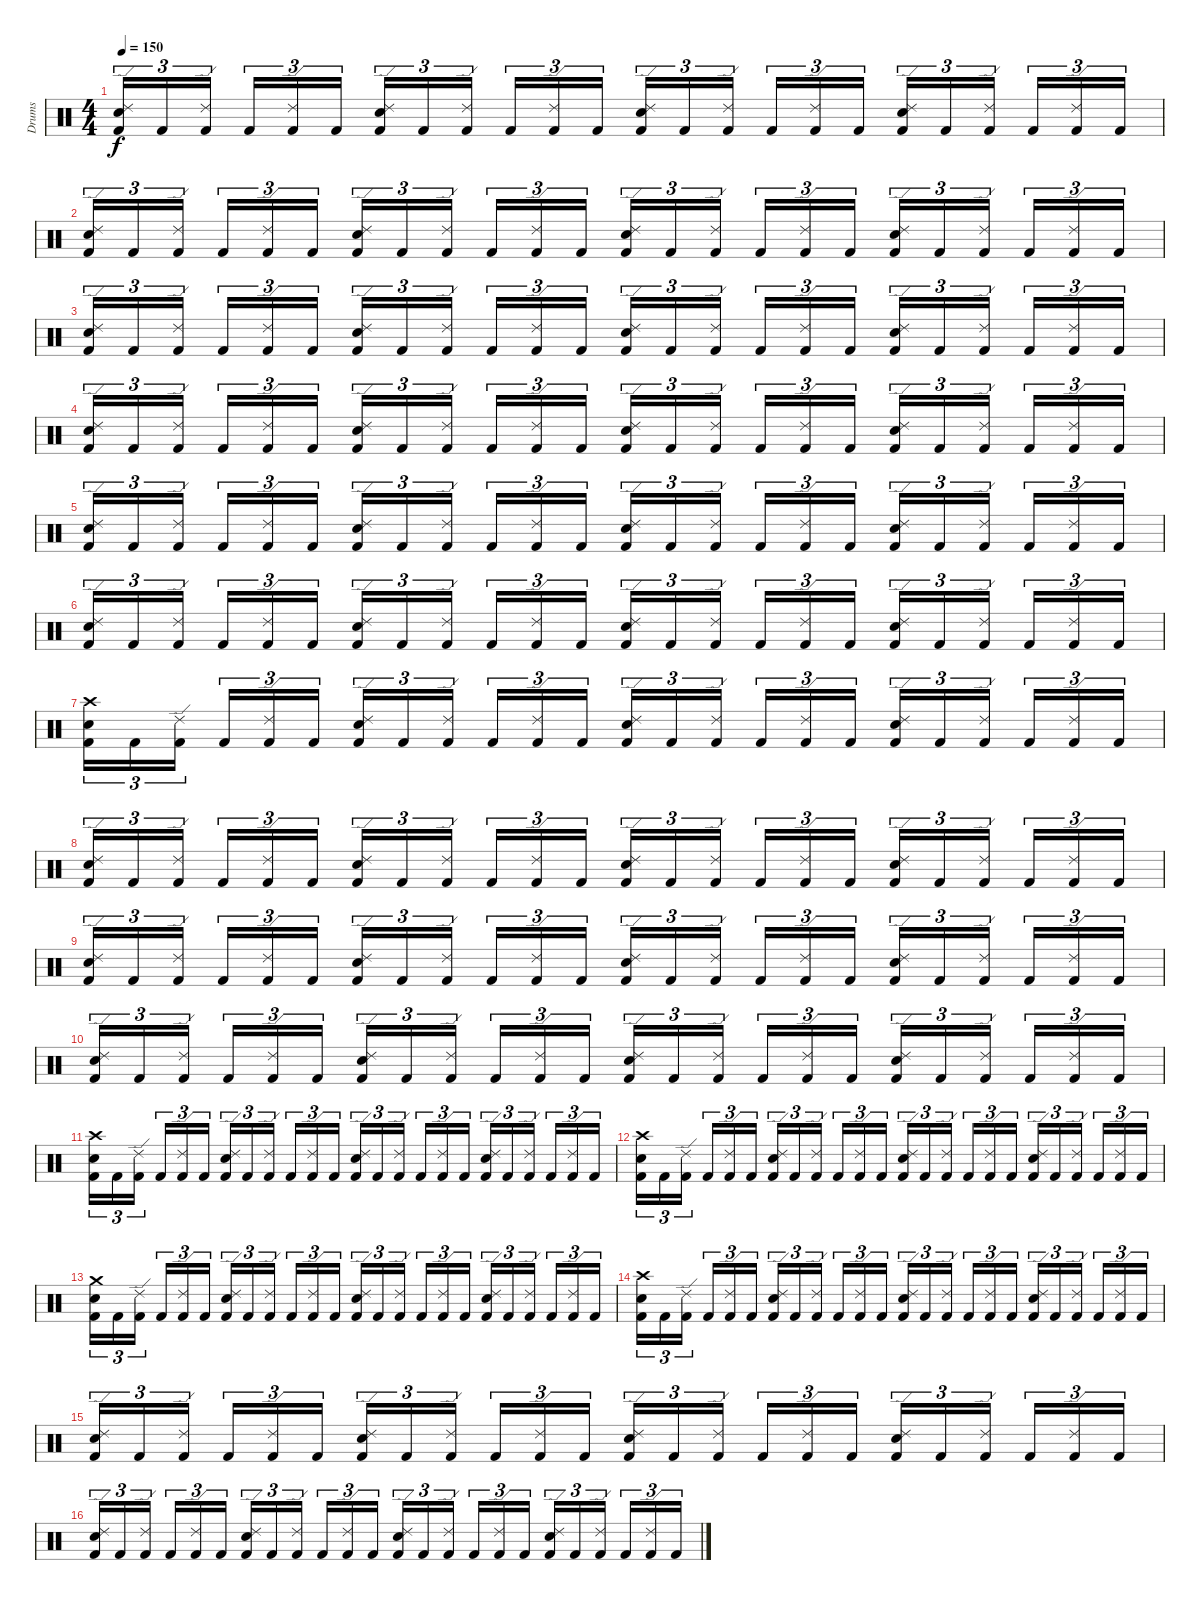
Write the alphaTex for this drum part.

\track ("Drums" "Drums") {instrument percussion}
\staff {score}
\articulation defaults
\ts (4 4)
\tempo 150
\clef neutral
\ks c
("Ride (edge) 2" "Electric Snare (hit)" "Kick (hit) 2").16{tu (3 2) dy f} "Kick (hit) 2".16{tu (3 2)} ("Ride (edge) 2" "Kick (hit) 2").16{tu (3 2)} "Kick (hit) 2".16{tu (3 2)} ("Ride (edge) 2" "Kick (hit) 2").16{tu (3 2)} "Kick (hit) 2".16{tu (3 2)} ("Ride (edge) 2" "Electric Snare (hit)" "Kick (hit) 2").16{tu (3 2)} "Kick (hit) 2".16{tu (3 2)} ("Ride (edge) 2" "Kick (hit) 2").16{tu (3 2)} "Kick (hit) 2".16{tu (3 2)} ("Ride (edge) 2" "Kick (hit) 2").16{tu (3 2)} "Kick (hit) 2".16{tu (3 2)} ("Ride (edge) 2" "Electric Snare (hit)" "Kick (hit) 2").16{tu (3 2)} "Kick (hit) 2".16{tu (3 2)} ("Ride (edge) 2" "Kick (hit) 2").16{tu (3 2)} "Kick (hit) 2".16{tu (3 2)} ("Ride (edge) 2" "Kick (hit) 2").16{tu (3 2)} "Kick (hit) 2".16{tu (3 2)} ("Ride (edge) 2" "Electric Snare (hit)" "Kick (hit) 2").16{tu (3 2)} "Kick (hit) 2".16{tu (3 2)} ("Ride (edge) 2" "Kick (hit) 2").16{tu (3 2)} "Kick (hit) 2".16{tu (3 2)} ("Ride (edge) 2" "Kick (hit) 2").16{tu (3 2)} "Kick (hit) 2".16{tu (3 2)} |
("Ride (edge) 2" "Electric Snare (hit)" "Kick (hit) 2").16{tu (3 2)} "Kick (hit) 2".16{tu (3 2)} ("Ride (edge) 2" "Kick (hit) 2").16{tu (3 2)} "Kick (hit) 2".16{tu (3 2)} ("Ride (edge) 2" "Kick (hit) 2").16{tu (3 2)} "Kick (hit) 2".16{tu (3 2)} ("Ride (edge) 2" "Electric Snare (hit)" "Kick (hit) 2").16{tu (3 2)} "Kick (hit) 2".16{tu (3 2)} ("Ride (edge) 2" "Kick (hit) 2").16{tu (3 2)} "Kick (hit) 2".16{tu (3 2)} ("Ride (edge) 2" "Kick (hit) 2").16{tu (3 2)} "Kick (hit) 2".16{tu (3 2)} ("Ride (edge) 2" "Electric Snare (hit)" "Kick (hit) 2").16{tu (3 2)} "Kick (hit) 2".16{tu (3 2)} ("Ride (edge) 2" "Kick (hit) 2").16{tu (3 2)} "Kick (hit) 2".16{tu (3 2)} ("Ride (edge) 2" "Kick (hit) 2").16{tu (3 2)} "Kick (hit) 2".16{tu (3 2)} ("Ride (edge) 2" "Electric Snare (hit)" "Kick (hit) 2").16{tu (3 2)} "Kick (hit) 2".16{tu (3 2)} ("Ride (edge) 2" "Kick (hit) 2").16{tu (3 2)} "Kick (hit) 2".16{tu (3 2)} ("Ride (edge) 2" "Kick (hit) 2").16{tu (3 2)} "Kick (hit) 2".16{tu (3 2)} |
("Ride (edge) 2" "Electric Snare (hit)" "Kick (hit) 2").16{tu (3 2)} "Kick (hit) 2".16{tu (3 2)} ("Ride (edge) 2" "Kick (hit) 2").16{tu (3 2)} "Kick (hit) 2".16{tu (3 2)} ("Ride (edge) 2" "Kick (hit) 2").16{tu (3 2)} "Kick (hit) 2".16{tu (3 2)} ("Ride (edge) 2" "Electric Snare (hit)" "Kick (hit) 2").16{tu (3 2)} "Kick (hit) 2".16{tu (3 2)} ("Ride (edge) 2" "Kick (hit) 2").16{tu (3 2)} "Kick (hit) 2".16{tu (3 2)} ("Ride (edge) 2" "Kick (hit) 2").16{tu (3 2)} "Kick (hit) 2".16{tu (3 2)} ("Ride (edge) 2" "Electric Snare (hit)" "Kick (hit) 2").16{tu (3 2)} "Kick (hit) 2".16{tu (3 2)} ("Ride (edge) 2" "Kick (hit) 2").16{tu (3 2)} "Kick (hit) 2".16{tu (3 2)} ("Ride (edge) 2" "Kick (hit) 2").16{tu (3 2)} "Kick (hit) 2".16{tu (3 2)} ("Ride (edge) 2" "Electric Snare (hit)" "Kick (hit) 2").16{tu (3 2)} "Kick (hit) 2".16{tu (3 2)} ("Ride (edge) 2" "Kick (hit) 2").16{tu (3 2)} "Kick (hit) 2".16{tu (3 2)} ("Ride (edge) 2" "Kick (hit) 2").16{tu (3 2)} "Kick (hit) 2".16{tu (3 2)} |
("Ride (edge) 2" "Electric Snare (hit)" "Kick (hit) 2").16{tu (3 2)} "Kick (hit) 2".16{tu (3 2)} ("Ride (edge) 2" "Kick (hit) 2").16{tu (3 2)} "Kick (hit) 2".16{tu (3 2)} ("Ride (edge) 2" "Kick (hit) 2").16{tu (3 2)} "Kick (hit) 2".16{tu (3 2)} ("Ride (edge) 2" "Electric Snare (hit)" "Kick (hit) 2").16{tu (3 2)} "Kick (hit) 2".16{tu (3 2)} ("Ride (edge) 2" "Kick (hit) 2").16{tu (3 2)} "Kick (hit) 2".16{tu (3 2)} ("Ride (edge) 2" "Kick (hit) 2").16{tu (3 2)} "Kick (hit) 2".16{tu (3 2)} ("Ride (edge) 2" "Electric Snare (hit)" "Kick (hit) 2").16{tu (3 2)} "Kick (hit) 2".16{tu (3 2)} ("Ride (edge) 2" "Kick (hit) 2").16{tu (3 2)} "Kick (hit) 2".16{tu (3 2)} ("Ride (edge) 2" "Kick (hit) 2").16{tu (3 2)} "Kick (hit) 2".16{tu (3 2)} ("Ride (edge) 2" "Electric Snare (hit)" "Kick (hit) 2").16{tu (3 2)} "Kick (hit) 2".16{tu (3 2)} ("Ride (edge) 2" "Kick (hit) 2").16{tu (3 2)} "Kick (hit) 2".16{tu (3 2)} ("Ride (edge) 2" "Kick (hit) 2").16{tu (3 2)} "Kick (hit) 2".16{tu (3 2)} |
("Ride (edge) 2" "Electric Snare (hit)" "Kick (hit) 2").16{tu (3 2)} "Kick (hit) 2".16{tu (3 2)} ("Ride (edge) 2" "Kick (hit) 2").16{tu (3 2)} "Kick (hit) 2".16{tu (3 2)} ("Ride (edge) 2" "Kick (hit) 2").16{tu (3 2)} "Kick (hit) 2".16{tu (3 2)} ("Ride (edge) 2" "Electric Snare (hit)" "Kick (hit) 2").16{tu (3 2)} "Kick (hit) 2".16{tu (3 2)} ("Ride (edge) 2" "Kick (hit) 2").16{tu (3 2)} "Kick (hit) 2".16{tu (3 2)} ("Ride (edge) 2" "Kick (hit) 2").16{tu (3 2)} "Kick (hit) 2".16{tu (3 2)} ("Ride (edge) 2" "Electric Snare (hit)" "Kick (hit) 2").16{tu (3 2)} "Kick (hit) 2".16{tu (3 2)} ("Ride (edge) 2" "Kick (hit) 2").16{tu (3 2)} "Kick (hit) 2".16{tu (3 2)} ("Ride (edge) 2" "Kick (hit) 2").16{tu (3 2)} "Kick (hit) 2".16{tu (3 2)} ("Ride (edge) 2" "Electric Snare (hit)" "Kick (hit) 2").16{tu (3 2)} "Kick (hit) 2".16{tu (3 2)} ("Ride (edge) 2" "Kick (hit) 2").16{tu (3 2)} "Kick (hit) 2".16{tu (3 2)} ("Ride (edge) 2" "Kick (hit) 2").16{tu (3 2)} "Kick (hit) 2".16{tu (3 2)} |
("Ride (edge) 2" "Electric Snare (hit)" "Kick (hit) 2").16{tu (3 2)} "Kick (hit) 2".16{tu (3 2)} ("Ride (edge) 2" "Kick (hit) 2").16{tu (3 2)} "Kick (hit) 2".16{tu (3 2)} ("Ride (edge) 2" "Kick (hit) 2").16{tu (3 2)} "Kick (hit) 2".16{tu (3 2)} ("Ride (edge) 2" "Electric Snare (hit)" "Kick (hit) 2").16{tu (3 2)} "Kick (hit) 2".16{tu (3 2)} ("Ride (edge) 2" "Kick (hit) 2").16{tu (3 2)} "Kick (hit) 2".16{tu (3 2)} ("Ride (edge) 2" "Kick (hit) 2").16{tu (3 2)} "Kick (hit) 2".16{tu (3 2)} ("Ride (edge) 2" "Electric Snare (hit)" "Kick (hit) 2").16{tu (3 2)} "Kick (hit) 2".16{tu (3 2)} ("Ride (edge) 2" "Kick (hit) 2").16{tu (3 2)} "Kick (hit) 2".16{tu (3 2)} ("Ride (edge) 2" "Kick (hit) 2").16{tu (3 2)} "Kick (hit) 2".16{tu (3 2)} ("Ride (edge) 2" "Electric Snare (hit)" "Kick (hit) 2").16{tu (3 2)} "Kick (hit) 2".16{tu (3 2)} ("Ride (edge) 2" "Kick (hit) 2").16{tu (3 2)} "Kick (hit) 2".16{tu (3 2)} ("Ride (edge) 2" "Kick (hit) 2").16{tu (3 2)} "Kick (hit) 2".16{tu (3 2)} |
("Crash high (hit)" "Electric Snare (hit)" "Kick (hit) 2").16{tu (3 2)} "Kick (hit) 2".16{tu (3 2)} ("Ride (edge) 2" "Kick (hit) 2").16{tu (3 2)} "Kick (hit) 2".16{tu (3 2)} ("Ride (edge) 2" "Kick (hit) 2").16{tu (3 2)} "Kick (hit) 2".16{tu (3 2)} ("Ride (edge) 2" "Electric Snare (hit)" "Kick (hit) 2").16{tu (3 2)} "Kick (hit) 2".16{tu (3 2)} ("Ride (edge) 2" "Kick (hit) 2").16{tu (3 2)} "Kick (hit) 2".16{tu (3 2)} ("Ride (edge) 2" "Kick (hit) 2").16{tu (3 2)} "Kick (hit) 2".16{tu (3 2)} ("Ride (edge) 2" "Electric Snare (hit)" "Kick (hit) 2").16{tu (3 2)} "Kick (hit) 2".16{tu (3 2)} ("Ride (edge) 2" "Kick (hit) 2").16{tu (3 2)} "Kick (hit) 2".16{tu (3 2)} ("Ride (edge) 2" "Kick (hit) 2").16{tu (3 2)} "Kick (hit) 2".16{tu (3 2)} ("Ride (edge) 2" "Electric Snare (hit)" "Kick (hit) 2").16{tu (3 2)} "Kick (hit) 2".16{tu (3 2)} ("Ride (edge) 2" "Kick (hit) 2").16{tu (3 2)} "Kick (hit) 2".16{tu (3 2)} ("Ride (edge) 2" "Kick (hit) 2").16{tu (3 2)} "Kick (hit) 2".16{tu (3 2)} |
("Ride (edge) 2" "Electric Snare (hit)" "Kick (hit) 2").16{tu (3 2)} "Kick (hit) 2".16{tu (3 2)} ("Ride (edge) 2" "Kick (hit) 2").16{tu (3 2)} "Kick (hit) 2".16{tu (3 2)} ("Ride (edge) 2" "Kick (hit) 2").16{tu (3 2)} "Kick (hit) 2".16{tu (3 2)} ("Ride (edge) 2" "Electric Snare (hit)" "Kick (hit) 2").16{tu (3 2)} "Kick (hit) 2".16{tu (3 2)} ("Ride (edge) 2" "Kick (hit) 2").16{tu (3 2)} "Kick (hit) 2".16{tu (3 2)} ("Ride (edge) 2" "Kick (hit) 2").16{tu (3 2)} "Kick (hit) 2".16{tu (3 2)} ("Ride (edge) 2" "Electric Snare (hit)" "Kick (hit) 2").16{tu (3 2)} "Kick (hit) 2".16{tu (3 2)} ("Ride (edge) 2" "Kick (hit) 2").16{tu (3 2)} "Kick (hit) 2".16{tu (3 2)} ("Ride (edge) 2" "Kick (hit) 2").16{tu (3 2)} "Kick (hit) 2".16{tu (3 2)} ("Ride (edge) 2" "Electric Snare (hit)" "Kick (hit) 2").16{tu (3 2)} "Kick (hit) 2".16{tu (3 2)} ("Ride (edge) 2" "Kick (hit) 2").16{tu (3 2)} "Kick (hit) 2".16{tu (3 2)} ("Ride (edge) 2" "Kick (hit) 2").16{tu (3 2)} "Kick (hit) 2".16{tu (3 2)} |
("Ride (edge) 2" "Electric Snare (hit)" "Kick (hit) 2").16{tu (3 2)} "Kick (hit) 2".16{tu (3 2)} ("Ride (edge) 2" "Kick (hit) 2").16{tu (3 2)} "Kick (hit) 2".16{tu (3 2)} ("Ride (edge) 2" "Kick (hit) 2").16{tu (3 2)} "Kick (hit) 2".16{tu (3 2)} ("Ride (edge) 2" "Electric Snare (hit)" "Kick (hit) 2").16{tu (3 2)} "Kick (hit) 2".16{tu (3 2)} ("Ride (edge) 2" "Kick (hit) 2").16{tu (3 2)} "Kick (hit) 2".16{tu (3 2)} ("Ride (edge) 2" "Kick (hit) 2").16{tu (3 2)} "Kick (hit) 2".16{tu (3 2)} ("Ride (edge) 2" "Electric Snare (hit)" "Kick (hit) 2").16{tu (3 2)} "Kick (hit) 2".16{tu (3 2)} ("Ride (edge) 2" "Kick (hit) 2").16{tu (3 2)} "Kick (hit) 2".16{tu (3 2)} ("Ride (edge) 2" "Kick (hit) 2").16{tu (3 2)} "Kick (hit) 2".16{tu (3 2)} ("Ride (edge) 2" "Electric Snare (hit)" "Kick (hit) 2").16{tu (3 2)} "Kick (hit) 2".16{tu (3 2)} ("Ride (edge) 2" "Kick (hit) 2").16{tu (3 2)} "Kick (hit) 2".16{tu (3 2)} ("Ride (edge) 2" "Kick (hit) 2").16{tu (3 2)} "Kick (hit) 2".16{tu (3 2)} |
("Ride (edge) 2" "Electric Snare (hit)" "Kick (hit) 2").16{tu (3 2)} "Kick (hit) 2".16{tu (3 2)} ("Ride (edge) 2" "Kick (hit) 2").16{tu (3 2)} "Kick (hit) 2".16{tu (3 2)} ("Ride (edge) 2" "Kick (hit) 2").16{tu (3 2)} "Kick (hit) 2".16{tu (3 2)} ("Ride (edge) 2" "Electric Snare (hit)" "Kick (hit) 2").16{tu (3 2)} "Kick (hit) 2".16{tu (3 2)} ("Ride (edge) 2" "Kick (hit) 2").16{tu (3 2)} "Kick (hit) 2".16{tu (3 2)} ("Ride (edge) 2" "Kick (hit) 2").16{tu (3 2)} "Kick (hit) 2".16{tu (3 2)} ("Ride (edge) 2" "Electric Snare (hit)" "Kick (hit) 2").16{tu (3 2)} "Kick (hit) 2".16{tu (3 2)} ("Ride (edge) 2" "Kick (hit) 2").16{tu (3 2)} "Kick (hit) 2".16{tu (3 2)} ("Ride (edge) 2" "Kick (hit) 2").16{tu (3 2)} "Kick (hit) 2".16{tu (3 2)} ("Ride (edge) 2" "Electric Snare (hit)" "Kick (hit) 2").16{tu (3 2)} "Kick (hit) 2".16{tu (3 2)} ("Ride (edge) 2" "Kick (hit) 2").16{tu (3 2)} "Kick (hit) 2".16{tu (3 2)} ("Ride (edge) 2" "Kick (hit) 2").16{tu (3 2)} "Kick (hit) 2".16{tu (3 2)} |
("Crash high (hit)" "Electric Snare (hit)" "Kick (hit) 2").16{tu (3 2)} "Kick (hit) 2".16{tu (3 2)} ("Ride (edge) 2" "Kick (hit) 2").16{tu (3 2)} "Kick (hit) 2".16{tu (3 2)} ("Ride (edge) 2" "Kick (hit) 2").16{tu (3 2)} "Kick (hit) 2".16{tu (3 2)} ("Ride (edge) 2" "Electric Snare (hit)" "Kick (hit) 2").16{tu (3 2)} "Kick (hit) 2".16{tu (3 2)} ("Ride (edge) 2" "Kick (hit) 2").16{tu (3 2)} "Kick (hit) 2".16{tu (3 2)} ("Ride (edge) 2" "Kick (hit) 2").16{tu (3 2)} "Kick (hit) 2".16{tu (3 2)} ("Ride (edge) 2" "Electric Snare (hit)" "Kick (hit) 2").16{tu (3 2)} "Kick (hit) 2".16{tu (3 2)} ("Ride (edge) 2" "Kick (hit) 2").16{tu (3 2)} "Kick (hit) 2".16{tu (3 2)} ("Ride (edge) 2" "Kick (hit) 2").16{tu (3 2)} "Kick (hit) 2".16{tu (3 2)} ("Ride (edge) 2" "Electric Snare (hit)" "Kick (hit) 2").16{tu (3 2)} "Kick (hit) 2".16{tu (3 2)} ("Ride (edge) 2" "Kick (hit) 2").16{tu (3 2)} "Kick (hit) 2".16{tu (3 2)} ("Ride (edge) 2" "Kick (hit) 2").16{tu (3 2)} "Kick (hit) 2".16{tu (3 2)} |
("Crash high (hit)" "Electric Snare (hit)" "Kick (hit) 2").16{tu (3 2)} "Kick (hit) 2".16{tu (3 2)} ("Ride (edge) 2" "Kick (hit) 2").16{tu (3 2)} "Kick (hit) 2".16{tu (3 2)} ("Ride (edge) 2" "Kick (hit) 2").16{tu (3 2)} "Kick (hit) 2".16{tu (3 2)} ("Ride (edge) 2" "Electric Snare (hit)" "Kick (hit) 2").16{tu (3 2)} "Kick (hit) 2".16{tu (3 2)} ("Ride (edge) 2" "Kick (hit) 2").16{tu (3 2)} "Kick (hit) 2".16{tu (3 2)} ("Ride (edge) 2" "Kick (hit) 2").16{tu (3 2)} "Kick (hit) 2".16{tu (3 2)} ("Ride (edge) 2" "Electric Snare (hit)" "Kick (hit) 2").16{tu (3 2)} "Kick (hit) 2".16{tu (3 2)} ("Ride (edge) 2" "Kick (hit) 2").16{tu (3 2)} "Kick (hit) 2".16{tu (3 2)} ("Ride (edge) 2" "Kick (hit) 2").16{tu (3 2)} "Kick (hit) 2".16{tu (3 2)} ("Ride (edge) 2" "Electric Snare (hit)" "Kick (hit) 2").16{tu (3 2)} "Kick (hit) 2".16{tu (3 2)} ("Ride (edge) 2" "Kick (hit) 2").16{tu (3 2)} "Kick (hit) 2".16{tu (3 2)} ("Ride (edge) 2" "Kick (hit) 2").16{tu (3 2)} "Kick (hit) 2".16{tu (3 2)} |
("Crash medium (hit)" "Electric Snare (hit)" "Kick (hit) 2").16{tu (3 2)} "Kick (hit) 2".16{tu (3 2)} ("Ride (edge) 2" "Kick (hit) 2").16{tu (3 2)} "Kick (hit) 2".16{tu (3 2)} ("Ride (edge) 2" "Kick (hit) 2").16{tu (3 2)} "Kick (hit) 2".16{tu (3 2)} ("Ride (edge) 2" "Electric Snare (hit)" "Kick (hit) 2").16{tu (3 2)} "Kick (hit) 2".16{tu (3 2)} ("Ride (edge) 2" "Kick (hit) 2").16{tu (3 2)} "Kick (hit) 2".16{tu (3 2)} ("Ride (edge) 2" "Kick (hit) 2").16{tu (3 2)} "Kick (hit) 2".16{tu (3 2)} ("Ride (edge) 2" "Electric Snare (hit)" "Kick (hit) 2").16{tu (3 2)} "Kick (hit) 2".16{tu (3 2)} ("Ride (edge) 2" "Kick (hit) 2").16{tu (3 2)} "Kick (hit) 2".16{tu (3 2)} ("Ride (edge) 2" "Kick (hit) 2").16{tu (3 2)} "Kick (hit) 2".16{tu (3 2)} ("Ride (edge) 2" "Electric Snare (hit)" "Kick (hit) 2").16{tu (3 2)} "Kick (hit) 2".16{tu (3 2)} ("Ride (edge) 2" "Kick (hit) 2").16{tu (3 2)} "Kick (hit) 2".16{tu (3 2)} ("Ride (edge) 2" "Kick (hit) 2").16{tu (3 2)} "Kick (hit) 2".16{tu (3 2)} |
("Crash high (hit)" "Electric Snare (hit)" "Kick (hit) 2").16{tu (3 2)} "Kick (hit) 2".16{tu (3 2)} ("Ride (edge) 2" "Kick (hit) 2").16{tu (3 2)} "Kick (hit) 2".16{tu (3 2)} ("Ride (edge) 2" "Kick (hit) 2").16{tu (3 2)} "Kick (hit) 2".16{tu (3 2)} ("Ride (edge) 2" "Electric Snare (hit)" "Kick (hit) 2").16{tu (3 2)} "Kick (hit) 2".16{tu (3 2)} ("Ride (edge) 2" "Kick (hit) 2").16{tu (3 2)} "Kick (hit) 2".16{tu (3 2)} ("Ride (edge) 2" "Kick (hit) 2").16{tu (3 2)} "Kick (hit) 2".16{tu (3 2)} ("Ride (edge) 2" "Electric Snare (hit)" "Kick (hit) 2").16{tu (3 2)} "Kick (hit) 2".16{tu (3 2)} ("Ride (edge) 2" "Kick (hit) 2").16{tu (3 2)} "Kick (hit) 2".16{tu (3 2)} ("Ride (edge) 2" "Kick (hit) 2").16{tu (3 2)} "Kick (hit) 2".16{tu (3 2)} ("Ride (edge) 2" "Electric Snare (hit)" "Kick (hit) 2").16{tu (3 2)} "Kick (hit) 2".16{tu (3 2)} ("Ride (edge) 2" "Kick (hit) 2").16{tu (3 2)} "Kick (hit) 2".16{tu (3 2)} ("Ride (edge) 2" "Kick (hit) 2").16{tu (3 2)} "Kick (hit) 2".16{tu (3 2)} |
("Ride (edge) 2" "Electric Snare (hit)" "Kick (hit) 2").16{tu (3 2)} "Kick (hit) 2".16{tu (3 2)} ("Ride (edge) 2" "Kick (hit) 2").16{tu (3 2)} "Kick (hit) 2".16{tu (3 2)} ("Ride (edge) 2" "Kick (hit) 2").16{tu (3 2)} "Kick (hit) 2".16{tu (3 2)} ("Ride (edge) 2" "Electric Snare (hit)" "Kick (hit) 2").16{tu (3 2)} "Kick (hit) 2".16{tu (3 2)} ("Ride (edge) 2" "Kick (hit) 2").16{tu (3 2)} "Kick (hit) 2".16{tu (3 2)} ("Ride (edge) 2" "Kick (hit) 2").16{tu (3 2)} "Kick (hit) 2".16{tu (3 2)} ("Ride (edge) 2" "Electric Snare (hit)" "Kick (hit) 2").16{tu (3 2)} "Kick (hit) 2".16{tu (3 2)} ("Ride (edge) 2" "Kick (hit) 2").16{tu (3 2)} "Kick (hit) 2".16{tu (3 2)} ("Ride (edge) 2" "Kick (hit) 2").16{tu (3 2)} "Kick (hit) 2".16{tu (3 2)} ("Ride (edge) 2" "Electric Snare (hit)" "Kick (hit) 2").16{tu (3 2)} "Kick (hit) 2".16{tu (3 2)} ("Ride (edge) 2" "Kick (hit) 2").16{tu (3 2)} "Kick (hit) 2".16{tu (3 2)} ("Ride (edge) 2" "Kick (hit) 2").16{tu (3 2)} "Kick (hit) 2".16{tu (3 2)} |
("Ride (edge) 2" "Electric Snare (hit)" "Kick (hit) 2").16{tu (3 2)} "Kick (hit) 2".16{tu (3 2)} ("Ride (edge) 2" "Kick (hit) 2").16{tu (3 2)} "Kick (hit) 2".16{tu (3 2)} ("Ride (edge) 2" "Kick (hit) 2").16{tu (3 2)} "Kick (hit) 2".16{tu (3 2)} ("Ride (edge) 2" "Electric Snare (hit)" "Kick (hit) 2").16{tu (3 2)} "Kick (hit) 2".16{tu (3 2)} ("Ride (edge) 2" "Kick (hit) 2").16{tu (3 2)} "Kick (hit) 2".16{tu (3 2)} ("Ride (edge) 2" "Kick (hit) 2").16{tu (3 2)} "Kick (hit) 2".16{tu (3 2)} ("Ride (edge) 2" "Electric Snare (hit)" "Kick (hit) 2").16{tu (3 2)} "Kick (hit) 2".16{tu (3 2)} ("Ride (edge) 2" "Kick (hit) 2").16{tu (3 2)} "Kick (hit) 2".16{tu (3 2)} ("Ride (edge) 2" "Kick (hit) 2").16{tu (3 2)} "Kick (hit) 2".16{tu (3 2)} ("Ride (edge) 2" "Electric Snare (hit)" "Kick (hit) 2").16{tu (3 2)} "Kick (hit) 2".16{tu (3 2)} ("Ride (edge) 2" "Kick (hit) 2").16{tu (3 2)} "Kick (hit) 2".16{tu (3 2)} ("Ride (edge) 2" "Kick (hit) 2").16{tu (3 2)} "Kick (hit) 2".16{tu (3 2)}
